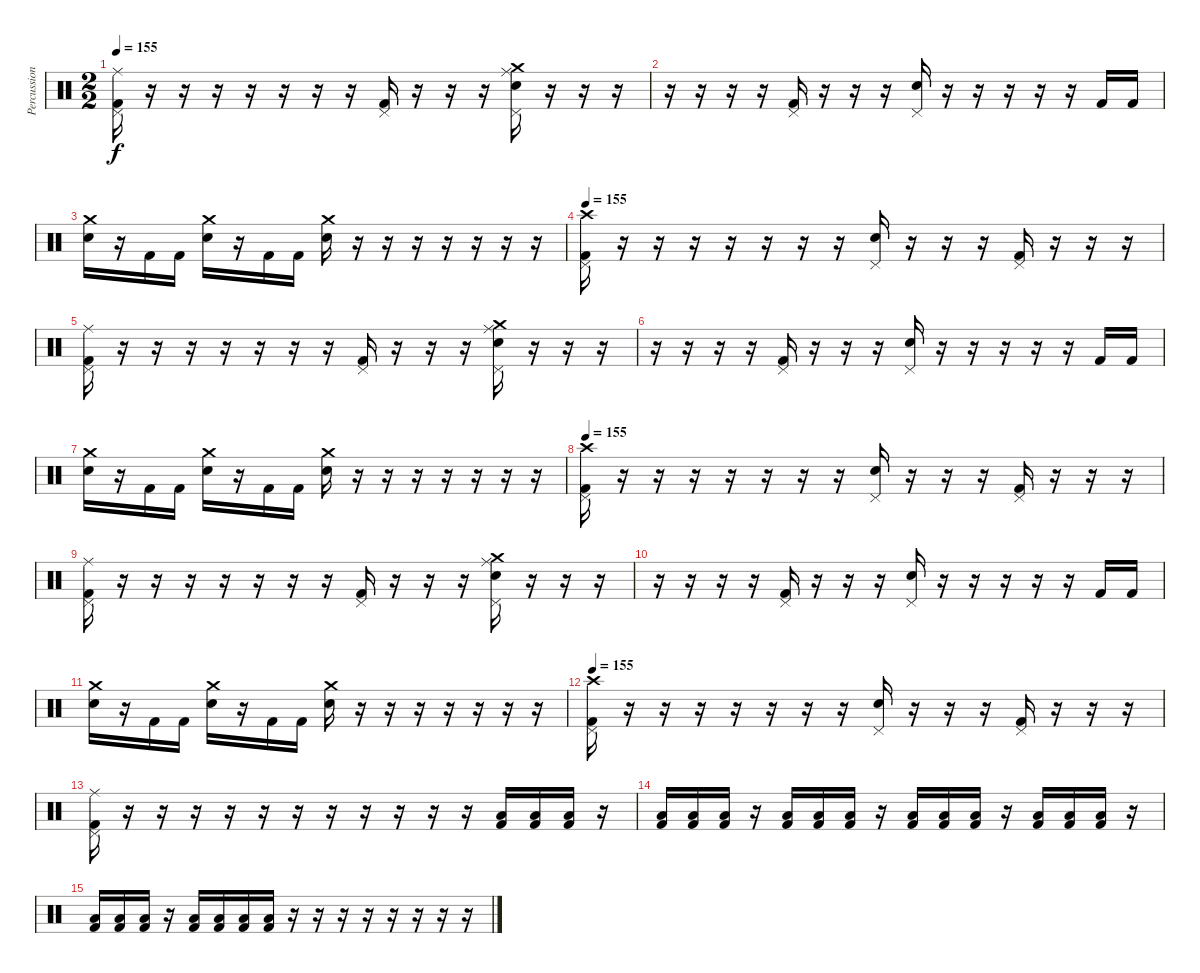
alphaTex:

\track ("Percussion" "Percussion") {instrument percussion}
\staff {score}
\articulation defaults
\ts (2 2)
\tempo 155
\clef neutral
\ks c
("Ride (middle)" "Pedal Hi-Hat (hit)" "Kick (hit) 2").16{dy f} r.16 r.16 r.16 r.16 r.16 r.16 r.16 ("Pedal Hi-Hat (hit)" "Kick (hit) 2").16 r.16 r.16 r.16 ("Ride (middle)" "Crash medium (hit)" "Pedal Hi-Hat (hit)" "Snare (hit) 2").16 r.16 r.16 r.16 |
r.16 r.16 r.16 r.16 ("Pedal Hi-Hat (hit)" "Kick (hit) 2").16 r.16 r.16 r.16 ("Pedal Hi-Hat (hit)" "Snare (hit) 2").16 r.16 r.16 r.16 r.16 r.16 "Kick (hit) 2".16 "Kick (hit) 2".16 |
("Crash medium (hit)" "Snare (hit) 2").16 r.16 "Kick (hit) 2".16 "Kick (hit) 2".16 ("Crash medium (hit)" "Snare (hit) 2").16 r.16 "Kick (hit) 2".16 "Kick (hit) 2".16 ("Crash medium (hit)" "Snare (hit) 2").16 r.16 r.16 r.16 r.16 r.16 r.16 r.16 |
\tempo 155
("Crash high (hit)" "Pedal Hi-Hat (hit)" "Kick (hit) 2").16 r.16 r.16 r.16 r.16 r.16 r.16 r.16 ("Pedal Hi-Hat (hit)" "Snare (hit) 2").16 r.16 r.16 r.16 ("Pedal Hi-Hat (hit)" "Kick (hit) 2").16 r.16 r.16 r.16 |
("Ride (middle)" "Pedal Hi-Hat (hit)" "Kick (hit) 2").16 r.16 r.16 r.16 r.16 r.16 r.16 r.16 ("Pedal Hi-Hat (hit)" "Kick (hit) 2").16 r.16 r.16 r.16 ("Ride (middle)" "Crash medium (hit)" "Pedal Hi-Hat (hit)" "Snare (hit) 2").16 r.16 r.16 r.16 |
r.16 r.16 r.16 r.16 ("Pedal Hi-Hat (hit)" "Kick (hit) 2").16 r.16 r.16 r.16 ("Pedal Hi-Hat (hit)" "Snare (hit) 2").16 r.16 r.16 r.16 r.16 r.16 "Kick (hit) 2".16 "Kick (hit) 2".16 |
("Crash medium (hit)" "Snare (hit) 2").16 r.16 "Kick (hit) 2".16 "Kick (hit) 2".16 ("Crash medium (hit)" "Snare (hit) 2").16 r.16 "Kick (hit) 2".16 "Kick (hit) 2".16 ("Crash medium (hit)" "Snare (hit) 2").16 r.16 r.16 r.16 r.16 r.16 r.16 r.16 |
\tempo 155
("Crash high (hit)" "Pedal Hi-Hat (hit)" "Kick (hit) 2").16 r.16 r.16 r.16 r.16 r.16 r.16 r.16 ("Pedal Hi-Hat (hit)" "Snare (hit) 2").16 r.16 r.16 r.16 ("Pedal Hi-Hat (hit)" "Kick (hit) 2").16 r.16 r.16 r.16 |
("Ride (middle)" "Pedal Hi-Hat (hit)" "Kick (hit) 2").16 r.16 r.16 r.16 r.16 r.16 r.16 r.16 ("Pedal Hi-Hat (hit)" "Kick (hit) 2").16 r.16 r.16 r.16 ("Ride (middle)" "Crash medium (hit)" "Pedal Hi-Hat (hit)" "Snare (hit) 2").16 r.16 r.16 r.16 |
r.16 r.16 r.16 r.16 ("Pedal Hi-Hat (hit)" "Kick (hit) 2").16 r.16 r.16 r.16 ("Pedal Hi-Hat (hit)" "Snare (hit) 2").16 r.16 r.16 r.16 r.16 r.16 "Kick (hit) 2".16 "Kick (hit) 2".16 |
("Crash medium (hit)" "Snare (hit) 2").16 r.16 "Kick (hit) 2".16 "Kick (hit) 2".16 ("Crash medium (hit)" "Snare (hit) 2").16 r.16 "Kick (hit) 2".16 "Kick (hit) 2".16 ("Crash medium (hit)" "Snare (hit) 2").16 r.16 r.16 r.16 r.16 r.16 r.16 r.16 |
\tempo 155
("Crash high (hit)" "Pedal Hi-Hat (hit)" "Kick (hit) 2").16 r.16 r.16 r.16 r.16 r.16 r.16 r.16 ("Pedal Hi-Hat (hit)" "Snare (hit) 2").16 r.16 r.16 r.16 ("Pedal Hi-Hat (hit)" "Kick (hit) 2").16 r.16 r.16 r.16 |
("Ride (middle)" "Pedal Hi-Hat (hit)" "Kick (hit) 2").16 r.16 r.16 r.16 r.16 r.16 r.16 r.16 r.16 r.16 r.16 r.16 ("Low Floor Tom (hit)" "Kick (hit) 2").16 ("Low Floor Tom (hit)" "Kick (hit) 2").16 ("Low Floor Tom (hit)" "Kick (hit) 2").16 r.16 |
("Low Floor Tom (hit)" "Kick (hit) 2").16 ("Low Floor Tom (hit)" "Kick (hit) 2").16 ("Low Floor Tom (hit)" "Kick (hit) 2").16 r.16 ("Low Floor Tom (hit)" "Kick (hit) 2").16 ("Low Floor Tom (hit)" "Kick (hit) 2").16 ("Low Floor Tom (hit)" "Kick (hit) 2").16 r.16 ("Low Floor Tom (hit)" "Kick (hit) 2").16 ("Low Floor Tom (hit)" "Kick (hit) 2").16 ("Low Floor Tom (hit)" "Kick (hit) 2").16 r.16 ("Low Floor Tom (hit)" "Kick (hit) 2").16 ("Low Floor Tom (hit)" "Kick (hit) 2").16 ("Low Floor Tom (hit)" "Kick (hit) 2").16 r.16 |
("Low Floor Tom (hit)" "Kick (hit) 2").16 ("Low Floor Tom (hit)" "Kick (hit) 2").16 ("Low Floor Tom (hit)" "Kick (hit) 2").16 r.16 ("Low Floor Tom (hit)" "Kick (hit) 2").16 ("Low Floor Tom (hit)" "Kick (hit) 2").16 ("Low Floor Tom (hit)" "Kick (hit) 2").16 ("Low Floor Tom (hit)" "Kick (hit) 2").16 r.16 r.16 r.16 r.16 r.16 r.16 r.16 r.16
